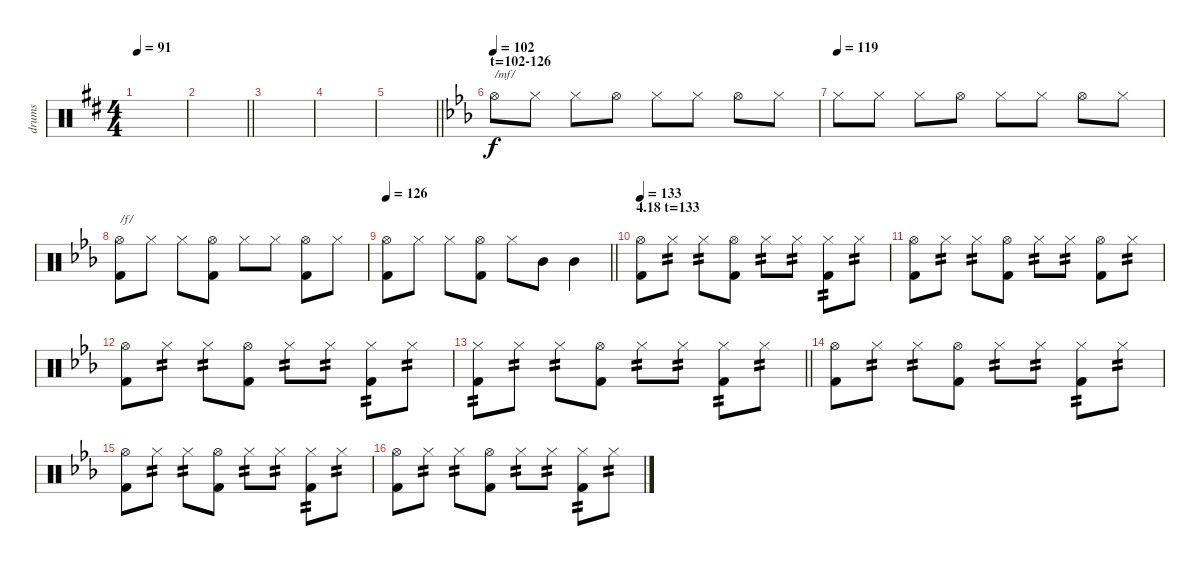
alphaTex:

\track ("drums" "drums") {instrument percussion}
\staff {score}
\articulation defaults
\ts (4 4)
\tempo 91
\clef neutral
\ks d
|
\barLineRight lightlight
|
|
|
\barLineRight lightlight
|
\section ("" "t=102-126")
\tempo 102
\ks eb "Hi-Hat (open)".8{txt "/mf/"} "Hi-Hat (closed)".8 "Hi-Hat (closed)".8 "Hi-Hat (open)".8 "Hi-Hat (closed)".8 "Hi-Hat (closed)".8 "Hi-Hat (open)".8 "Hi-Hat (closed)".8
|
\tempo (119)
"Hi-Hat (closed)".8 "Hi-Hat (closed)".8 "Hi-Hat (closed)".8 "Hi-Hat (open)".8 "Hi-Hat (closed)".8 "Hi-Hat (closed)".8 "Hi-Hat (open)".8 "Hi-Hat (closed)".8 |
("Hi-Hat (open)" "Kick (hit) 2").8{txt "/f/" dy f} "Hi-Hat (closed)".8 "Hi-Hat (closed)".8 ("Hi-Hat (open)" "Kick (hit) 2").8 "Hi-Hat (closed)".8 "Hi-Hat (closed)".8 ("Hi-Hat (open)" "Kick (hit) 2").8 "Hi-Hat (closed)".8 |
\tempo 126
\barLineRight lightlight
("Hi-Hat (open)" "Kick (hit) 2").8 "Hi-Hat (closed)".8 "Hi-Hat (closed)".8 ("Hi-Hat (open)" "Kick (hit) 2").8 "Hi-Hat (closed)".8 "Mid Tom (hit)".8 "Mid Tom (hit)".4 |
\section ("" "4.18 t=133")
\tempo 133
("Hi-Hat (open)" "Kick (hit) 2").8 "Hi-Hat (closed)".8{tp 2} "Hi-Hat (closed)".8{tp 2} ("Hi-Hat (open)" "Kick (hit) 2").8 "Hi-Hat (closed)".8{tp 2} "Hi-Hat (closed)".8{tp 2} ("Hi-Hat (closed)" "Kick (hit) 2").8{tp 2} "Hi-Hat (closed)".8{tp 2} |
("Hi-Hat (open)" "Kick (hit) 2").8 "Hi-Hat (closed)".8{tp 2} "Hi-Hat (closed)".8{tp 2} ("Hi-Hat (open)" "Kick (hit) 2").8 "Hi-Hat (closed)".8{tp 2} "Hi-Hat (closed)".8{tp 2} ("Hi-Hat (open)" "Kick (hit) 2").8 "Hi-Hat (closed)".8{tp 2} |
("Hi-Hat (open)" "Kick (hit) 2").8 "Hi-Hat (closed)".8{tp 2} "Hi-Hat (closed)".8{tp 2} ("Hi-Hat (open)" "Kick (hit) 2").8 "Hi-Hat (closed)".8{tp 2} "Hi-Hat (closed)".8{tp 2} ("Hi-Hat (closed)" "Kick (hit) 2").8{tp 2} "Hi-Hat (closed)".8{tp 2} |
\barLineRight lightlight
("Hi-Hat (closed)" "Kick (hit) 2").8{tp 2} "Hi-Hat (closed)".8{tp 2} "Hi-Hat (closed)".8{tp 2} ("Hi-Hat (open)" "Kick (hit) 2").8 "Hi-Hat (closed)".8{tp 2} "Hi-Hat (closed)".8{tp 2} ("Hi-Hat (closed)" "Kick (hit) 2").8{tp 2} "Hi-Hat (closed)".8{tp 2} |
("Hi-Hat (open)" "Kick (hit) 2").8 "Hi-Hat (closed)".8{tp 2} "Hi-Hat (closed)".8{tp 2} ("Hi-Hat (open)" "Kick (hit) 2").8 "Hi-Hat (closed)".8{tp 2} "Hi-Hat (closed)".8{tp 2} ("Hi-Hat (closed)" "Kick (hit) 2").8{tp 2} "Hi-Hat (closed)".8{tp 2} |
("Hi-Hat (open)" "Kick (hit) 2").8 "Hi-Hat (closed)".8{tp 2} "Hi-Hat (closed)".8{tp 2} ("Hi-Hat (open)" "Kick (hit) 2").8 "Hi-Hat (closed)".8{tp 2} "Hi-Hat (closed)".8{tp 2} ("Hi-Hat (closed)" "Kick (hit) 2").8{tp 2} "Hi-Hat (closed)".8{tp 2} |
("Hi-Hat (open)" "Kick (hit) 2").8 "Hi-Hat (closed)".8{tp 2} "Hi-Hat (closed)".8{tp 2} ("Hi-Hat (open)" "Kick (hit) 2").8 "Hi-Hat (closed)".8{tp 2} "Hi-Hat (closed)".8{tp 2} ("Hi-Hat (closed)" "Kick (hit) 2").8{tp 2} "Hi-Hat (closed)".8{tp 2}
